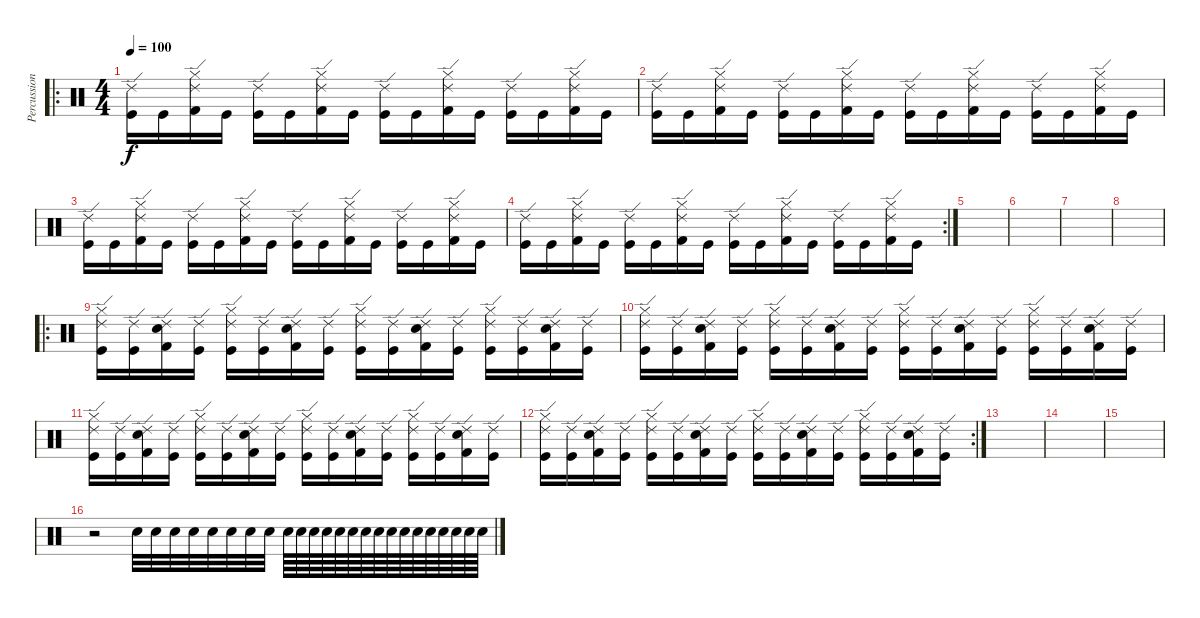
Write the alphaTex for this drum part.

\track ("Percussions" "Percussion") {instrument percussion}
\staff {score}
\articulation defaults
\ro
\ts (4 4)
\tempo 100
\clef neutral
\ks c
("Kick (hit)" "Ride (edge) 2").16{dy f} "Kick (hit)".16 ("Kick (hit) 2" "Ride (edge) 2" "Hi-Hat (closed)").16 "Kick (hit)".16 ("Kick (hit)" "Ride (edge) 2").16 "Kick (hit)".16 ("Kick (hit) 2" "Ride (edge) 2" "Hi-Hat (closed)").16 "Kick (hit)".16 ("Kick (hit)" "Ride (edge) 2").16 "Kick (hit)".16 ("Kick (hit) 2" "Ride (edge) 2" "Hi-Hat (closed)").16 "Kick (hit)".16 ("Kick (hit)" "Ride (edge) 2").16 "Kick (hit)".16 ("Kick (hit) 2" "Ride (edge) 2" "Hi-Hat (closed)").16 "Kick (hit)".16 |
("Kick (hit)" "Ride (edge) 2").16 "Kick (hit)".16 ("Kick (hit) 2" "Ride (edge) 2" "Hi-Hat (closed)").16 "Kick (hit)".16 ("Kick (hit)" "Ride (edge) 2").16 "Kick (hit)".16 ("Kick (hit) 2" "Ride (edge) 2" "Hi-Hat (closed)").16 "Kick (hit)".16 ("Kick (hit)" "Ride (edge) 2").16 "Kick (hit)".16 ("Kick (hit) 2" "Ride (edge) 2" "Hi-Hat (closed)").16 "Kick (hit)".16 ("Kick (hit)" "Ride (edge) 2").16 "Kick (hit)".16 ("Kick (hit) 2" "Ride (edge) 2" "Hi-Hat (closed)").16 "Kick (hit)".16 |
("Kick (hit)" "Ride (edge) 2").16 "Kick (hit)".16 ("Kick (hit) 2" "Ride (edge) 2" "Hi-Hat (closed)").16 "Kick (hit)".16 ("Kick (hit)" "Ride (edge) 2").16 "Kick (hit)".16 ("Kick (hit) 2" "Ride (edge) 2" "Hi-Hat (closed)").16 "Kick (hit)".16 ("Kick (hit)" "Ride (edge) 2").16 "Kick (hit)".16 ("Kick (hit) 2" "Ride (edge) 2" "Hi-Hat (closed)").16 "Kick (hit)".16 ("Kick (hit)" "Ride (edge) 2").16 "Kick (hit)".16 ("Kick (hit) 2" "Ride (edge) 2" "Hi-Hat (closed)").16 "Kick (hit)".16 |
\rc 2
("Kick (hit)" "Ride (edge) 2").16 "Kick (hit)".16 ("Kick (hit) 2" "Ride (edge) 2" "Hi-Hat (closed)").16 "Kick (hit)".16 ("Kick (hit)" "Ride (edge) 2").16 "Kick (hit)".16 ("Kick (hit) 2" "Ride (edge) 2" "Hi-Hat (closed)").16 "Kick (hit)".16 ("Kick (hit)" "Ride (edge) 2").16 "Kick (hit)".16 ("Kick (hit) 2" "Ride (edge) 2" "Hi-Hat (closed)").16 "Kick (hit)".16 ("Kick (hit)" "Ride (edge) 2").16 "Kick (hit)".16 ("Kick (hit) 2" "Ride (edge) 2" "Hi-Hat (closed)").16 "Kick (hit)".16 |
|
|
|
|
\ro
("Kick (hit)" "Ride (edge) 2" "Hi-Hat (closed)").16 ("Kick (hit)" "Ride (edge) 2").16 ("Kick (hit) 2" "Ride (edge) 2" "Snare (hit) 2").16 ("Kick (hit)" "Ride (edge) 2").16 ("Kick (hit)" "Ride (edge) 2" "Hi-Hat (closed)").16 ("Kick (hit)" "Ride (edge) 2").16 ("Kick (hit) 2" "Ride (edge) 2" "Snare (hit) 2").16 ("Kick (hit)" "Ride (edge) 2").16 ("Kick (hit)" "Ride (edge) 2" "Hi-Hat (closed)").16 ("Kick (hit)" "Ride (edge) 2").16 ("Kick (hit) 2" "Ride (edge) 2" "Snare (hit) 2").16 ("Kick (hit)" "Ride (edge) 2").16 ("Kick (hit)" "Ride (edge) 2" "Hi-Hat (closed)").16 ("Kick (hit)" "Ride (edge) 2").16 ("Kick (hit) 2" "Ride (edge) 2" "Snare (hit) 2").16 ("Kick (hit)" "Ride (edge) 2").16 |
("Kick (hit)" "Ride (edge) 2" "Hi-Hat (closed)").16 ("Kick (hit)" "Ride (edge) 2").16 ("Kick (hit) 2" "Ride (edge) 2" "Snare (hit) 2").16 ("Kick (hit)" "Ride (edge) 2").16 ("Kick (hit)" "Ride (edge) 2" "Hi-Hat (closed)").16 ("Kick (hit)" "Ride (edge) 2").16 ("Kick (hit) 2" "Ride (edge) 2" "Snare (hit) 2").16 ("Kick (hit)" "Ride (edge) 2").16 ("Kick (hit)" "Ride (edge) 2" "Hi-Hat (closed)").16 ("Kick (hit)" "Ride (edge) 2").16 ("Kick (hit) 2" "Ride (edge) 2" "Snare (hit) 2").16 ("Kick (hit)" "Ride (edge) 2").16 ("Kick (hit)" "Ride (edge) 2" "Hi-Hat (closed)").16 ("Kick (hit)" "Ride (edge) 2").16 ("Kick (hit) 2" "Ride (edge) 2" "Snare (hit) 2").16 ("Kick (hit)" "Ride (edge) 2").16 |
("Kick (hit)" "Ride (edge) 2" "Hi-Hat (closed)").16 ("Kick (hit)" "Ride (edge) 2").16 ("Kick (hit) 2" "Ride (edge) 2" "Snare (hit) 2").16 ("Kick (hit)" "Ride (edge) 2").16 ("Kick (hit)" "Ride (edge) 2" "Hi-Hat (closed)").16 ("Kick (hit)" "Ride (edge) 2").16 ("Kick (hit) 2" "Ride (edge) 2" "Snare (hit) 2").16 ("Kick (hit)" "Ride (edge) 2").16 ("Kick (hit)" "Ride (edge) 2" "Hi-Hat (closed)").16 ("Kick (hit)" "Ride (edge) 2").16 ("Kick (hit) 2" "Ride (edge) 2" "Snare (hit) 2").16 ("Kick (hit)" "Ride (edge) 2").16 ("Kick (hit)" "Ride (edge) 2" "Hi-Hat (closed)").16 ("Kick (hit)" "Ride (edge) 2").16 ("Kick (hit) 2" "Ride (edge) 2" "Snare (hit) 2").16 ("Kick (hit)" "Ride (edge) 2").16 |
\rc 2
("Kick (hit)" "Ride (edge) 2" "Hi-Hat (closed)").16 ("Kick (hit)" "Ride (edge) 2").16 ("Kick (hit) 2" "Ride (edge) 2" "Snare (hit) 2").16 ("Kick (hit)" "Ride (edge) 2").16 ("Kick (hit)" "Ride (edge) 2" "Hi-Hat (closed)").16 ("Kick (hit)" "Ride (edge) 2").16 ("Kick (hit) 2" "Ride (edge) 2" "Snare (hit) 2").16 ("Kick (hit)" "Ride (edge) 2").16 ("Kick (hit)" "Ride (edge) 2" "Hi-Hat (closed)").16 ("Kick (hit)" "Ride (edge) 2").16 ("Kick (hit) 2" "Ride (edge) 2" "Snare (hit) 2").16 ("Kick (hit)" "Ride (edge) 2").16 ("Kick (hit)" "Ride (edge) 2" "Hi-Hat (closed)").16 ("Kick (hit)" "Ride (edge) 2").16 ("Kick (hit) 2" "Ride (edge) 2" "Snare (hit) 2").16 ("Kick (hit)" "Ride (edge) 2").16 |
|
|
|
r.2 "Electric Snare (hit)".32 "Electric Snare (hit)".32 "Electric Snare (hit)".32 "Electric Snare (hit)".32 "Electric Snare (hit)".32 "Electric Snare (hit)".32 "Electric Snare (hit)".32 "Electric Snare (hit)".32 "Electric Snare (hit)".64 "Electric Snare (hit)".64 "Electric Snare (hit)".64 "Electric Snare (hit)".64 "Electric Snare (hit)".64 "Electric Snare (hit)".64 "Electric Snare (hit)".64 "Electric Snare (hit)".64 "Electric Snare (hit)".64 "Electric Snare (hit)".64 "Electric Snare (hit)".64 "Electric Snare (hit)".64 "Electric Snare (hit)".64 "Electric Snare (hit)".64 "Electric Snare (hit)".64 "Electric Snare (hit)".64
